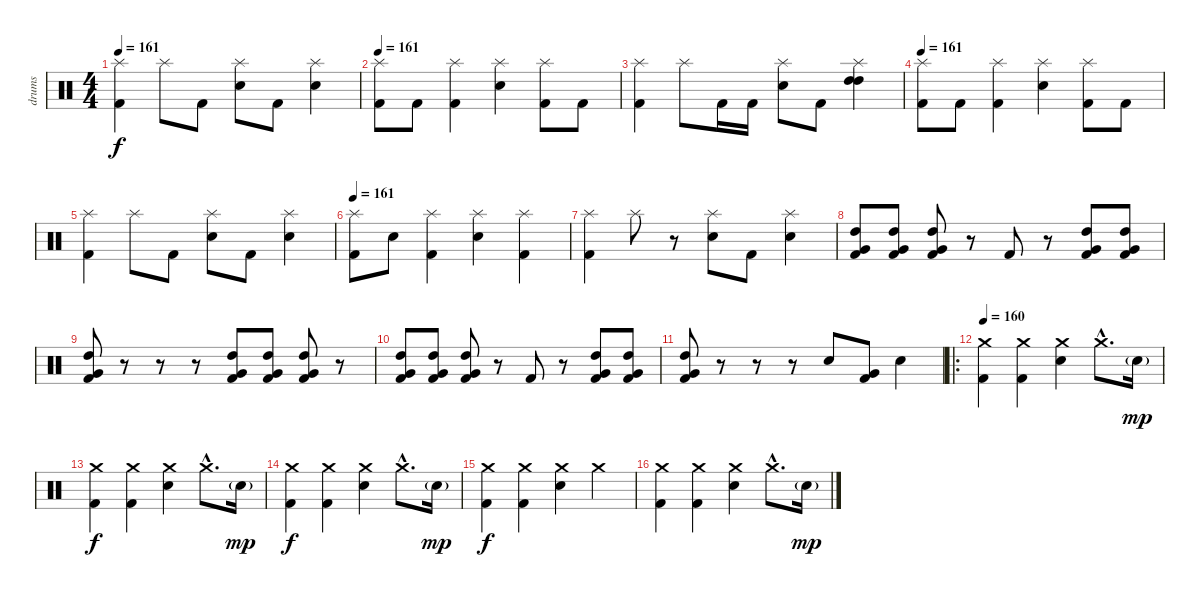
\track ("drums" "drums") {instrument percussion}
\staff {score}
\articulation defaults
\ts (4 4)
\tempo 161
\clef neutral
\ks c
("Splash (hit)" "Kick (hit) 2").4{dy f} "Splash (hit)".8 "Kick (hit) 2".8 ("Splash (hit)" "Electric Snare (hit)").8 "Kick (hit) 2".8 ("Splash (hit)" "Electric Snare (hit)").4 |
\tempo 161
("Splash (hit)" "Kick (hit) 2").8 "Kick (hit) 2".8 ("Splash (hit)" "Kick (hit) 2").4 ("Splash (hit)" "Electric Snare (hit)").4 ("Splash (hit)" "Kick (hit) 2").8 "Kick (hit) 2".8 |
("Splash (hit)" "Kick (hit) 2").4 "Splash (hit)".8 "Kick (hit) 2".16 "Kick (hit) 2".16 ("Splash (hit)" "Electric Snare (hit)").8 "Kick (hit) 2".8 ("Splash (hit)" "High Tom (hit)" "High Tom (hit)").4 |
\tempo 161
("Splash (hit)" "Kick (hit) 2").8 "Kick (hit) 2".8 ("Splash (hit)" "Kick (hit) 2").4 ("Splash (hit)" "Electric Snare (hit)").4 ("Splash (hit)" "Kick (hit) 2").8 "Kick (hit) 2".8 |
("Splash (hit)" "Kick (hit) 2").4 "Splash (hit)".8 "Kick (hit) 2".8 ("Splash (hit)" "Electric Snare (hit)").8 "Kick (hit) 2".8 ("Splash (hit)" "Electric Snare (hit)").4 |
\tempo 161
("Splash (hit)" "Kick (hit) 2").8 "Electric Snare (hit)".8 ("Splash (hit)" "Kick (hit) 2").4 ("Splash (hit)" "Electric Snare (hit)").4 ("Splash (hit)" "Kick (hit) 2").4 |
("Splash (hit)" "Kick (hit) 2").4 "Splash (hit)".8 r.8 ("Splash (hit)" "Electric Snare (hit)").8 "Kick (hit) 2".8 ("Splash (hit)" "Electric Snare (hit)").4 |
("High Tom (hit)" "Very Low Tom (hit)" "Kick (hit) 2").8 ("High Tom (hit)" "Very Low Tom (hit)" "Kick (hit) 2").8 ("High Tom (hit)" "Very Low Tom (hit)" "Kick (hit) 2").8 r.8 "Kick (hit) 2".8 r.8 ("High Tom (hit)" "Very Low Tom (hit)" "Kick (hit) 2").8 ("High Tom (hit)" "Very Low Tom (hit)" "Kick (hit) 2").8 |
("High Tom (hit)" "Very Low Tom (hit)" "Kick (hit) 2").8 r.8 r.8 r.8 ("High Tom (hit)" "Very Low Tom (hit)" "Kick (hit) 2").8 ("High Tom (hit)" "Very Low Tom (hit)" "Kick (hit) 2").8 ("High Tom (hit)" "Very Low Tom (hit)" "Kick (hit) 2").8 r.8 |
("High Tom (hit)" "Very Low Tom (hit)" "Kick (hit) 2").8 ("High Tom (hit)" "Very Low Tom (hit)" "Kick (hit) 2").8 ("High Tom (hit)" "Very Low Tom (hit)" "Kick (hit) 2").8 r.8 "Kick (hit) 2".8 r.8 ("High Tom (hit)" "Very Low Tom (hit)" "Kick (hit) 2").8 ("High Tom (hit)" "Very Low Tom (hit)" "Kick (hit) 2").8 |
("High Tom (hit)" "Very Low Tom (hit)" "Kick (hit) 2").8 r.8 r.8 r.8 "Electric Snare (hit)".8 ("Very Low Tom (hit)" "Kick (hit) 2").8 "Electric Snare (hit)".4 |
\ro
\tempo 160
("Crash medium (hit)" "Kick (hit) 2").4 ("Crash medium (hit)" "Kick (hit) 2").4 ("Crash medium (hit)" "Electric Snare (hit)").4 "Crash medium (hit)"{hac}.8{d} "Electric Snare (hit)"{g}.16{dy mp} |
("Crash medium (hit)" "Kick (hit) 2").4{dy f} ("Crash medium (hit)" "Kick (hit) 2").4 ("Crash medium (hit)" "Electric Snare (hit)").4 "Crash medium (hit)"{hac}.8{d} "Electric Snare (hit)"{g}.16{dy mp} |
("Crash medium (hit)" "Kick (hit) 2").4{dy f} ("Crash medium (hit)" "Kick (hit) 2").4 ("Crash medium (hit)" "Electric Snare (hit)").4 "Crash medium (hit)"{hac}.8{d} "Electric Snare (hit)"{g}.16{dy mp} |
("Crash medium (hit)" "Kick (hit) 2").4{dy f} ("Crash medium (hit)" "Kick (hit) 2").4 ("Crash medium (hit)" "Electric Snare (hit)").4 "Crash medium (hit)".4 |
("Crash medium (hit)" "Kick (hit) 2").4 ("Crash medium (hit)" "Kick (hit) 2").4 ("Crash medium (hit)" "Electric Snare (hit)").4 "Crash medium (hit)"{hac}.8{d} "Electric Snare (hit)"{g}.16{dy mp}
